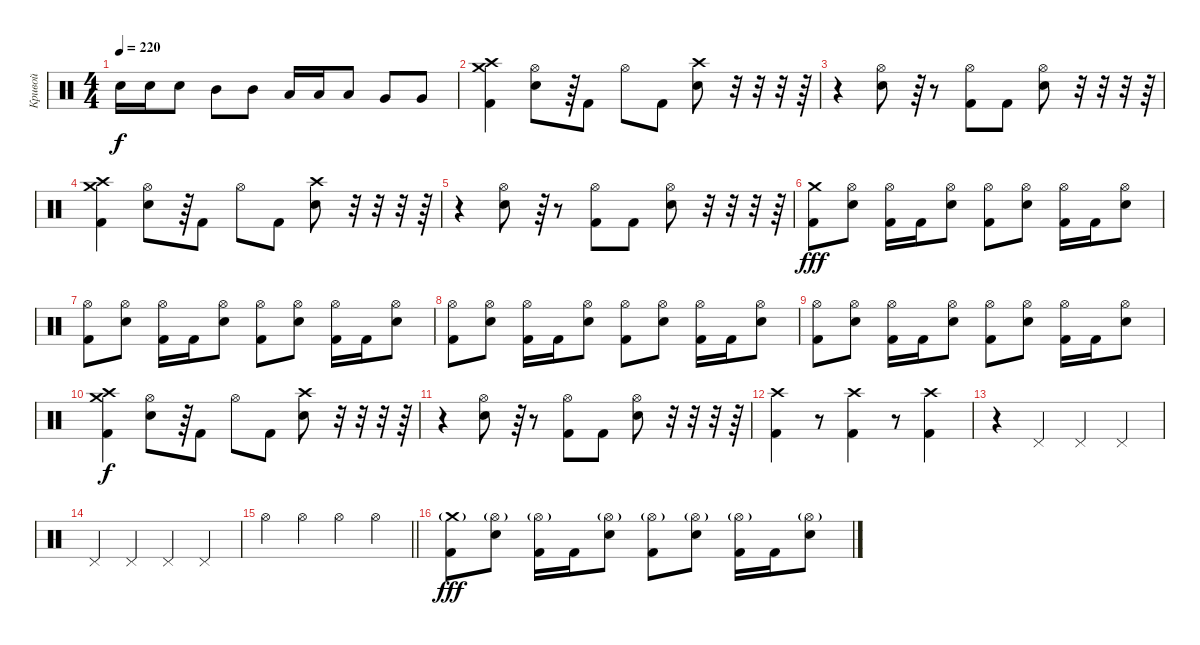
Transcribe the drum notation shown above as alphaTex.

\track ("Кривой" "Кривой") {instrument percussion}
\staff {score}
\articulation defaults
\ts (4 4)
\tempo 220
\clef neutral
\ks c "Electric Snare (hit)".16{dy f} "Electric Snare (hit)".16 "Electric Snare (hit)".8 "Mid Tom (hit)".8 "Mid Tom (hit)".8 "Low Tom (hit)".16 "Low Tom (hit)".16 "Low Tom (hit)".8 "Very Low Tom (hit)".8 "Very Low Tom (hit)".8
|
("Crash medium (hit)" "Crash high (hit)" "Kick (hit) 2").4 ("Hi-Hat (open)" "Electric Snare (hit)").8 r.64 "Kick (hit) 2".8 "Hi-Hat (open)".8 "Kick (hit) 2".8 ("Crash high (hit)" "Electric Snare (hit)").8 r.32 r.32 r.32 r.64 |
r.4 ("Hi-Hat (open)" "Electric Snare (hit)").8 r.64 r.8 ("Hi-Hat (open)" "Kick (hit) 2").8 "Kick (hit) 2".8 ("Hi-Hat (open)" "Electric Snare (hit)").8 r.32 r.32 r.32 r.64 |
("Crash medium (hit)" "Crash high (hit)" "Kick (hit) 2").4 ("Hi-Hat (open)" "Electric Snare (hit)").8 r.64 "Kick (hit) 2".8 "Hi-Hat (open)".8 "Kick (hit) 2".8 ("Crash high (hit)" "Electric Snare (hit)").8 r.32 r.32 r.32 r.64 |
r.4 ("Hi-Hat (open)" "Electric Snare (hit)").8 r.64 r.8 ("Hi-Hat (open)" "Kick (hit) 2").8 "Kick (hit) 2".8 ("Hi-Hat (open)" "Electric Snare (hit)").8 r.32 r.32 r.32 r.64 |
("Crash medium (hit)" "Kick (hit) 2").8{dy fff} ("Hi-Hat (open)" "Electric Snare (hit)").8 ("Hi-Hat (open)" "Kick (hit) 2").16 "Kick (hit) 2".16 ("Hi-Hat (open)" "Electric Snare (hit)").8 ("Hi-Hat (open)" "Kick (hit) 2").8 ("Hi-Hat (open)" "Electric Snare (hit)").8 ("Hi-Hat (open)" "Kick (hit) 2").16 "Kick (hit) 2".16 ("Hi-Hat (open)" "Electric Snare (hit)").8 |
("Hi-Hat (open)" "Kick (hit) 2").8 ("Hi-Hat (open)" "Electric Snare (hit)").8 ("Hi-Hat (open)" "Kick (hit) 2").16 "Kick (hit) 2".16 ("Hi-Hat (open)" "Electric Snare (hit)").8 ("Hi-Hat (open)" "Kick (hit) 2").8 ("Hi-Hat (open)" "Electric Snare (hit)").8 ("Hi-Hat (open)" "Kick (hit) 2").16 "Kick (hit) 2".16 ("Hi-Hat (open)" "Electric Snare (hit)").8 |
("Hi-Hat (open)" "Kick (hit) 2").8 ("Hi-Hat (open)" "Electric Snare (hit)").8 ("Hi-Hat (open)" "Kick (hit) 2").16 "Kick (hit) 2".16 ("Hi-Hat (open)" "Electric Snare (hit)").8 ("Hi-Hat (open)" "Kick (hit) 2").8 ("Hi-Hat (open)" "Electric Snare (hit)").8 ("Hi-Hat (open)" "Kick (hit) 2").16 "Kick (hit) 2".16 ("Hi-Hat (open)" "Electric Snare (hit)").8 |
("Hi-Hat (open)" "Kick (hit) 2").8 ("Hi-Hat (open)" "Electric Snare (hit)").8 ("Hi-Hat (open)" "Kick (hit) 2").16 "Kick (hit) 2".16 ("Hi-Hat (open)" "Electric Snare (hit)").8 ("Hi-Hat (open)" "Kick (hit) 2").8 ("Hi-Hat (open)" "Electric Snare (hit)").8 ("Hi-Hat (open)" "Kick (hit) 2").16 "Kick (hit) 2".16 ("Hi-Hat (open)" "Electric Snare (hit)").8 |
("Crash medium (hit)" "Crash high (hit)" "Kick (hit) 2").4{dy f} ("Hi-Hat (open)" "Electric Snare (hit)").8 r.64 "Kick (hit) 2".8 "Hi-Hat (open)".8 "Kick (hit) 2".8 ("Crash high (hit)" "Electric Snare (hit)").8 r.32 r.32 r.32 r.64 |
r.4 ("Hi-Hat (open)" "Electric Snare (hit)").8 r.64 r.8 ("Hi-Hat (open)" "Kick (hit) 2").8 "Kick (hit) 2".8 ("Hi-Hat (open)" "Electric Snare (hit)").8 r.32 r.32 r.32 r.64 |
("Crash high (hit)" "Kick (hit) 2").4 r.8 ("Crash high (hit)" "Kick (hit) 2").4 r.8 ("Crash high (hit)" "Kick (hit) 2").4 |
r.4 "Pedal Hi-Hat (hit)".4 "Pedal Hi-Hat (hit)".4 "Pedal Hi-Hat (hit)".4 |
"Pedal Hi-Hat (hit)".4 "Pedal Hi-Hat (hit)".4 "Pedal Hi-Hat (hit)".4 "Pedal Hi-Hat (hit)".4 |
\barLineRight lightlight "Hi-Hat (open)".4 "Hi-Hat (open)".4 "Hi-Hat (open)".4 "Hi-Hat (open)".4
|
\section ("" "")
("Crash medium (hit)"{g} "Kick (hit) 2").8{dy fff} ("Hi-Hat (open)"{g} "Electric Snare (hit)").8 ("Hi-Hat (open)"{g} "Kick (hit) 2").16 "Kick (hit) 2".16 ("Hi-Hat (open)"{g} "Electric Snare (hit)").8 ("Hi-Hat (open)"{g} "Kick (hit) 2").8 ("Hi-Hat (open)"{g} "Electric Snare (hit)").8 ("Hi-Hat (open)"{g} "Kick (hit) 2").16 "Kick (hit) 2".16 ("Hi-Hat (open)"{g} "Electric Snare (hit)").8
